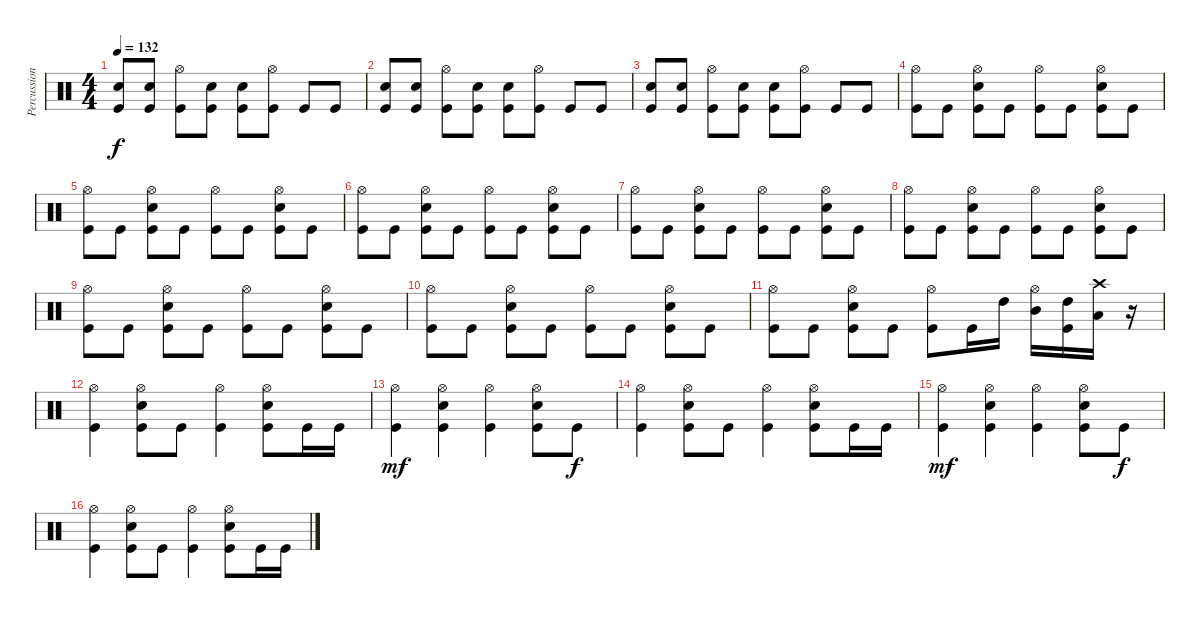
\track ("Percussion" "Percussion") {instrument percussion}
\staff {score}
\articulation defaults
\ts (4 4)
\tempo 132
\clef neutral
\ks c
("Electric Snare (hit)" "Kick (hit)").8{dy f} ("Electric Snare (hit)" "Kick (hit)").8 ("Hi-Hat (open)" "Kick (hit)").8 ("Electric Snare (hit)" "Kick (hit)").8 ("Electric Snare (hit)" "Kick (hit)").8 ("Hi-Hat (open)" "Kick (hit)").8 "Kick (hit)".8 "Kick (hit)".8 |
("Electric Snare (hit)" "Kick (hit)").8 ("Electric Snare (hit)" "Kick (hit)").8 ("Hi-Hat (open)" "Kick (hit)").8 ("Electric Snare (hit)" "Kick (hit)").8 ("Electric Snare (hit)" "Kick (hit)").8 ("Hi-Hat (open)" "Kick (hit)").8 "Kick (hit)".8 "Kick (hit)".8 |
("Electric Snare (hit)" "Kick (hit)").8 ("Electric Snare (hit)" "Kick (hit)").8 ("Hi-Hat (open)" "Kick (hit)").8 ("Electric Snare (hit)" "Kick (hit)").8 ("Electric Snare (hit)" "Kick (hit)").8 ("Hi-Hat (open)" "Kick (hit)").8 "Kick (hit)".8 "Kick (hit)".8 |
("Hi-Hat (open)" "Kick (hit)").8 "Kick (hit)".8 ("Hi-Hat (open)" "Electric Snare (hit)" "Kick (hit)").8 "Kick (hit)".8 ("Hi-Hat (open)" "Kick (hit)").8 "Kick (hit)".8 ("Hi-Hat (open)" "Electric Snare (hit)" "Kick (hit)").8 "Kick (hit)".8 |
("Hi-Hat (open)" "Kick (hit)").8 "Kick (hit)".8 ("Hi-Hat (open)" "Electric Snare (hit)" "Kick (hit)").8 "Kick (hit)".8 ("Hi-Hat (open)" "Kick (hit)").8 "Kick (hit)".8 ("Hi-Hat (open)" "Electric Snare (hit)" "Kick (hit)").8 "Kick (hit)".8 |
("Hi-Hat (open)" "Kick (hit)").8 "Kick (hit)".8 ("Hi-Hat (open)" "Electric Snare (hit)" "Kick (hit)").8 "Kick (hit)".8 ("Hi-Hat (open)" "Kick (hit)").8 "Kick (hit)".8 ("Hi-Hat (open)" "Electric Snare (hit)" "Kick (hit)").8 "Kick (hit)".8 |
("Hi-Hat (open)" "Kick (hit)").8 "Kick (hit)".8 ("Hi-Hat (open)" "Electric Snare (hit)" "Kick (hit)").8 "Kick (hit)".8 ("Hi-Hat (open)" "Kick (hit)").8 "Kick (hit)".8 ("Hi-Hat (open)" "Electric Snare (hit)" "Kick (hit)").8 "Kick (hit)".8 |
("Hi-Hat (open)" "Kick (hit)").8 "Kick (hit)".8 ("Hi-Hat (open)" "Electric Snare (hit)" "Kick (hit)").8 "Kick (hit)".8 ("Hi-Hat (open)" "Kick (hit)").8 "Kick (hit)".8 ("Hi-Hat (open)" "Electric Snare (hit)" "Kick (hit)").8 "Kick (hit)".8 |
("Hi-Hat (open)" "Kick (hit)").8 "Kick (hit)".8 ("Hi-Hat (open)" "Electric Snare (hit)" "Kick (hit)").8 "Kick (hit)".8 ("Hi-Hat (open)" "Kick (hit)").8 "Kick (hit)".8 ("Hi-Hat (open)" "Electric Snare (hit)" "Kick (hit)").8 "Kick (hit)".8 |
("Hi-Hat (open)" "Kick (hit)").8 "Kick (hit)".8 ("Hi-Hat (open)" "Electric Snare (hit)" "Kick (hit)").8 "Kick (hit)".8 ("Hi-Hat (open)" "Kick (hit)").8 "Kick (hit)".8 ("Hi-Hat (open)" "Electric Snare (hit)" "Kick (hit)").8 "Kick (hit)".8 |
("Hi-Hat (open)" "Kick (hit)").8 "Kick (hit)".8 ("Hi-Hat (open)" "Electric Snare (hit)" "Kick (hit)").8 "Kick (hit)".8 ("Hi-Hat (open)" "Kick (hit)").8 "Kick (hit)".16 "High Tom (hit)".16 ("Hi-Hat (open)" "Mid Tom (hit)").16 ("High Tom (hit)" "Kick (hit)").16 ("Crash high (hit)" "Low Tom (hit)").16 r.16 |
("Hi-Hat (open)" "Kick (hit)").4 ("Hi-Hat (open)" "Electric Snare (hit)" "Kick (hit)").8 "Kick (hit)".8 ("Hi-Hat (open)" "Kick (hit)").4 ("Hi-Hat (open)" "Electric Snare (hit)" "Kick (hit)").8 "Kick (hit)".16 "Kick (hit)".16 |
("Hi-Hat (open)" "Kick (hit)").4{dy mf} ("Hi-Hat (open)" "Electric Snare (hit)" "Kick (hit)").4 ("Hi-Hat (open)" "Kick (hit)").4 ("Hi-Hat (open)" "Electric Snare (hit)" "Kick (hit)").8 "Kick (hit)".8{dy f} |
("Hi-Hat (open)" "Kick (hit)").4 ("Hi-Hat (open)" "Electric Snare (hit)" "Kick (hit)").8 "Kick (hit)".8 ("Hi-Hat (open)" "Kick (hit)").4 ("Hi-Hat (open)" "Electric Snare (hit)" "Kick (hit)").8 "Kick (hit)".16 "Kick (hit)".16 |
("Hi-Hat (open)" "Kick (hit)").4{dy mf} ("Hi-Hat (open)" "Electric Snare (hit)" "Kick (hit)").4 ("Hi-Hat (open)" "Kick (hit)").4 ("Hi-Hat (open)" "Electric Snare (hit)" "Kick (hit)").8 "Kick (hit)".8{dy f} |
("Hi-Hat (open)" "Kick (hit)").4 ("Hi-Hat (open)" "Electric Snare (hit)" "Kick (hit)").8 "Kick (hit)".8 ("Hi-Hat (open)" "Kick (hit)").4 ("Hi-Hat (open)" "Electric Snare (hit)" "Kick (hit)").8 "Kick (hit)".16 "Kick (hit)".16
